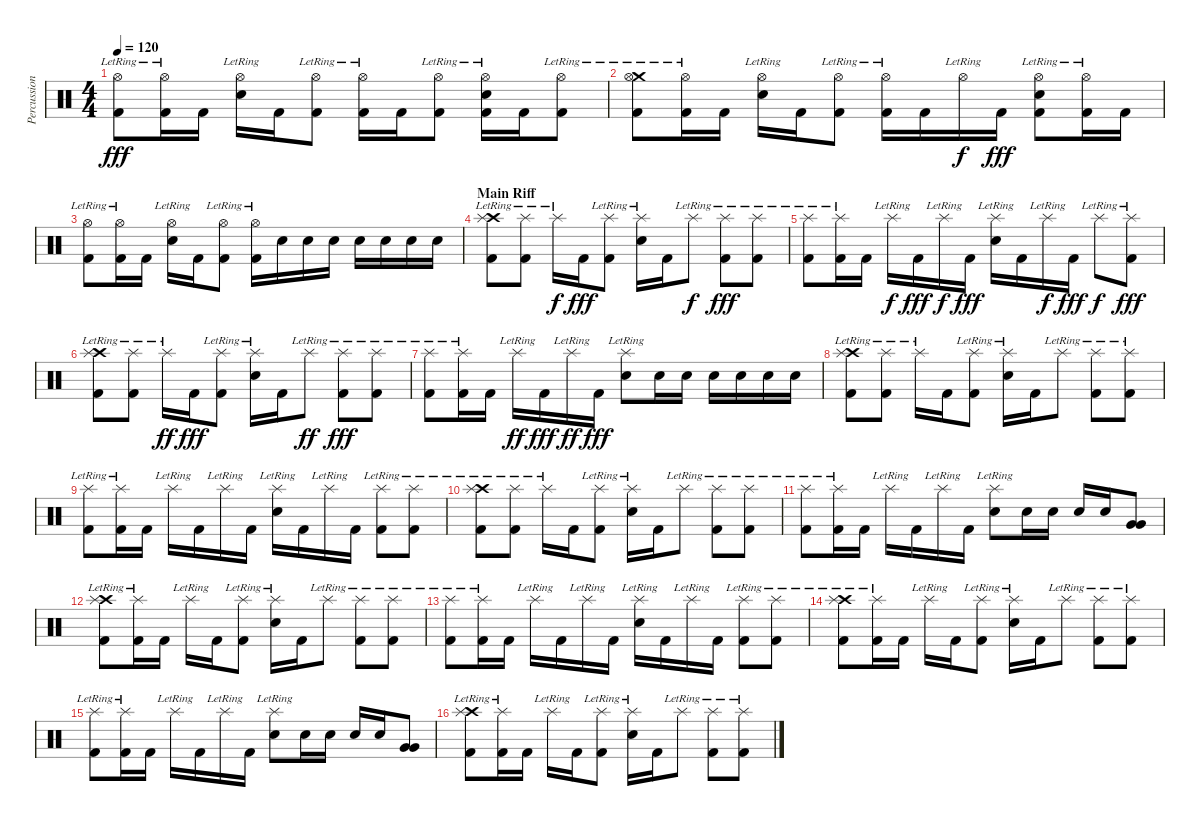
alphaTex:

\track ("Percussions" "Percussion") {instrument percussion}
\staff {score}
\articulation defaults
\ts (4 4)
\tempo 120
\clef neutral
\ks c
("Hi-Hat (open)"{lr} "Kick (hit) 2").8{dy fff} ("Hi-Hat (open)"{lr} "Kick (hit) 2").16 "Kick (hit) 2".16 ("Hi-Hat (open)"{lr} "Electric Snare (hit)").16 "Kick (hit) 2".16 ("Hi-Hat (open)"{lr} "Kick (hit) 2").8 ("Hi-Hat (open)"{lr} "Kick (hit) 2").16 "Kick (hit) 2".16 ("Hi-Hat (open)"{lr} "Kick (hit) 2").8 ("Hi-Hat (open)"{lr} "Electric Snare (hit)" "Kick (hit) 2").16 "Kick (hit) 2".16 ("Hi-Hat (open)"{lr} "Kick (hit) 2").8 |
("Crash medium (hit)"{lr} "Hi-Hat (open)"{lr} "Kick (hit) 2").8 ("Hi-Hat (open)"{lr} "Kick (hit) 2").16 "Kick (hit) 2".16 ("Hi-Hat (open)"{lr} "Electric Snare (hit)").16 "Kick (hit) 2".16 ("Hi-Hat (open)"{lr} "Kick (hit) 2").8 ("Hi-Hat (open)"{lr} "Kick (hit) 2").16 "Kick (hit) 2".16 "Hi-Hat (open)"{lr}.16{dy f} "Kick (hit) 2".16{dy fff} ("Hi-Hat (open)"{lr} "Electric Snare (hit)" "Kick (hit) 2").8 ("Hi-Hat (open)"{lr} "Kick (hit) 2").16 "Kick (hit) 2".16 |
("Hi-Hat (open)"{lr} "Kick (hit) 2").8 ("Hi-Hat (open)"{lr} "Kick (hit) 2").16 "Kick (hit) 2".16 ("Hi-Hat (open)"{lr} "Electric Snare (hit)").16 "Kick (hit) 2".16 ("Hi-Hat (open)"{lr} "Kick (hit) 2").8 ("Hi-Hat (open)"{lr} "Kick (hit) 2").16 "Electric Snare (hit)".16 "Electric Snare (hit)".16 "Electric Snare (hit)".16 "Electric Snare (hit)".16 "Electric Snare (hit)".16 "Electric Snare (hit)".16 "Electric Snare (hit)".16 |
\section ("" "Main Riff")
("Crash high (hit)"{lr} "Splash (hit)"{lr} "Kick (hit) 2").8 ("Splash (hit)"{lr} "Kick (hit) 2").8 "Splash (hit)"{lr}.16{dy f} "Kick (hit) 2".16{dy fff} ("Splash (hit)"{lr} "Kick (hit) 2").8 ("Splash (hit)"{lr} "Electric Snare (hit)").16 "Kick (hit) 2".16 "Splash (hit)"{lr}.8{dy f} ("Splash (hit)"{lr} "Kick (hit) 2").8{dy fff} ("Splash (hit)"{lr} "Kick (hit) 2").8 |
("Splash (hit)"{lr} "Kick (hit) 2").8 ("Splash (hit)"{lr} "Kick (hit) 2").16 "Kick (hit) 2".16 "Splash (hit)"{lr}.16{dy f} "Kick (hit) 2".16{dy fff} "Splash (hit)"{lr}.16{dy f} "Kick (hit) 2".16{dy fff} ("Splash (hit)"{lr} "Electric Snare (hit)").16 "Kick (hit) 2".16 "Splash (hit)"{lr}.16{dy f} "Kick (hit) 2".16{dy fff} "Splash (hit)"{lr}.8{dy f} ("Splash (hit)"{lr} "Kick (hit) 2").8{dy fff} |
("Crash high (hit)"{lr} "Splash (hit)"{lr} "Kick (hit) 2").8 ("Splash (hit)"{lr} "Kick (hit) 2").8 "Splash (hit)"{lr}.16{dy ff} "Kick (hit) 2".16{dy fff} ("Splash (hit)"{lr} "Kick (hit) 2").8 ("Splash (hit)"{lr} "Electric Snare (hit)").16 "Kick (hit) 2".16 "Splash (hit)"{lr}.8{dy ff} ("Splash (hit)"{lr} "Kick (hit) 2").8{dy fff} ("Splash (hit)"{lr} "Kick (hit) 2").8 |
("Splash (hit)"{lr} "Kick (hit) 2").8 ("Splash (hit)"{lr} "Kick (hit) 2").16 "Kick (hit) 2".16 "Splash (hit)"{lr}.16{dy ff} "Kick (hit) 2".16{dy fff} "Splash (hit)"{lr}.16{dy ff} "Kick (hit) 2".16{dy fff} ("Splash (hit)"{lr} "Electric Snare (hit)").8 "Electric Snare (hit)".16 "Electric Snare (hit)".16 "Electric Snare (hit)".16 "Electric Snare (hit)".16 "Electric Snare (hit)".16 "Electric Snare (hit)".16 |
("Crash high (hit)"{lr} "Splash (hit)"{lr} "Kick (hit) 2").8 ("Splash (hit)"{lr} "Kick (hit) 2").8 "Splash (hit)"{lr}.16 "Kick (hit) 2".16 ("Splash (hit)"{lr} "Kick (hit) 2").8 ("Splash (hit)"{lr} "Electric Snare (hit)").16 "Kick (hit) 2".16 "Splash (hit)"{lr}.8 ("Splash (hit)"{lr} "Kick (hit) 2").8 ("Splash (hit)"{lr} "Kick (hit) 2").8 |
("Splash (hit)"{lr} "Kick (hit) 2").8 ("Splash (hit)"{lr} "Kick (hit) 2").16 "Kick (hit) 2".16 "Splash (hit)"{lr}.16 "Kick (hit) 2".16 "Splash (hit)"{lr}.16 "Kick (hit) 2".16 ("Splash (hit)"{lr} "Electric Snare (hit)").16 "Kick (hit) 2".16 "Splash (hit)"{lr}.16 "Kick (hit) 2".16 ("Splash (hit)"{lr} "Kick (hit) 2").8 ("Splash (hit)"{lr} "Kick (hit) 2").8 |
("Crash high (hit)"{lr} "Splash (hit)"{lr} "Kick (hit) 2").8 ("Splash (hit)"{lr} "Kick (hit) 2").8 "Splash (hit)"{lr}.16 "Kick (hit) 2".16 ("Splash (hit)"{lr} "Kick (hit) 2").8 ("Splash (hit)"{lr} "Electric Snare (hit)").16 "Kick (hit) 2".16 "Splash (hit)"{lr}.8 ("Splash (hit)"{lr} "Kick (hit) 2").8 ("Splash (hit)"{lr} "Kick (hit) 2").8 |
("Splash (hit)"{lr} "Kick (hit) 2").8 ("Splash (hit)"{lr} "Kick (hit) 2").16 "Kick (hit) 2".16 "Splash (hit)"{lr}.16 "Kick (hit) 2".16 "Splash (hit)"{lr}.16 "Kick (hit) 2".16 ("Splash (hit)"{lr} "Electric Snare (hit)").8 "Electric Snare (hit)".16 "Electric Snare (hit)".16 "Electric Snare (hit)".16 "Electric Snare (hit)".16 ("Very Low Tom (hit)" "Very Low Tom (hit)").8 |
("Crash high (hit)"{lr} "Splash (hit)"{lr} "Kick (hit) 2").8 ("Splash (hit)"{lr} "Kick (hit) 2").16 "Kick (hit) 2".16 "Splash (hit)"{lr}.16 "Kick (hit) 2".16 ("Splash (hit)"{lr} "Kick (hit) 2").8 ("Splash (hit)"{lr} "Electric Snare (hit)").16 "Kick (hit) 2".16 "Splash (hit)"{lr}.8 ("Splash (hit)"{lr} "Kick (hit) 2").8 ("Splash (hit)"{lr} "Kick (hit) 2").8 |
("Splash (hit)"{lr} "Kick (hit) 2").8 ("Splash (hit)"{lr} "Kick (hit) 2").16 "Kick (hit) 2".16 "Splash (hit)"{lr}.16 "Kick (hit) 2".16 "Splash (hit)"{lr}.16 "Kick (hit) 2".16 ("Splash (hit)"{lr} "Electric Snare (hit)").16 "Kick (hit) 2".16 "Splash (hit)"{lr}.16 "Kick (hit) 2".16 ("Splash (hit)"{lr} "Kick (hit) 2").8 ("Splash (hit)"{lr} "Kick (hit) 2").8 |
("Crash high (hit)"{lr} "Splash (hit)"{lr} "Kick (hit) 2").8 ("Splash (hit)"{lr} "Kick (hit) 2").16 "Kick (hit) 2".16 "Splash (hit)"{lr}.16 "Kick (hit) 2".16 ("Splash (hit)"{lr} "Kick (hit) 2").8 ("Splash (hit)"{lr} "Electric Snare (hit)").16 "Kick (hit) 2".16 "Splash (hit)"{lr}.8 ("Splash (hit)"{lr} "Kick (hit) 2").8 ("Splash (hit)"{lr} "Kick (hit) 2").8 |
("Splash (hit)"{lr} "Kick (hit) 2").8 ("Splash (hit)"{lr} "Kick (hit) 2").16 "Kick (hit) 2".16 "Splash (hit)"{lr}.16 "Kick (hit) 2".16 "Splash (hit)"{lr}.16 "Kick (hit) 2".16 ("Splash (hit)"{lr} "Electric Snare (hit)").8 "Electric Snare (hit)".16 "Electric Snare (hit)".16 "Electric Snare (hit)".16 "Electric Snare (hit)".16 ("Very Low Tom (hit)" "Very Low Tom (hit)").8 |
("Crash high (hit)"{lr} "Splash (hit)"{lr} "Kick (hit) 2").8 ("Splash (hit)"{lr} "Kick (hit) 2").16 "Kick (hit) 2".16 "Splash (hit)"{lr}.16 "Kick (hit) 2".16 ("Splash (hit)"{lr} "Kick (hit) 2").8 ("Splash (hit)"{lr} "Electric Snare (hit)").16 "Kick (hit) 2".16 "Splash (hit)"{lr}.8 ("Splash (hit)"{lr} "Kick (hit) 2").8 ("Splash (hit)"{lr} "Kick (hit) 2").8
